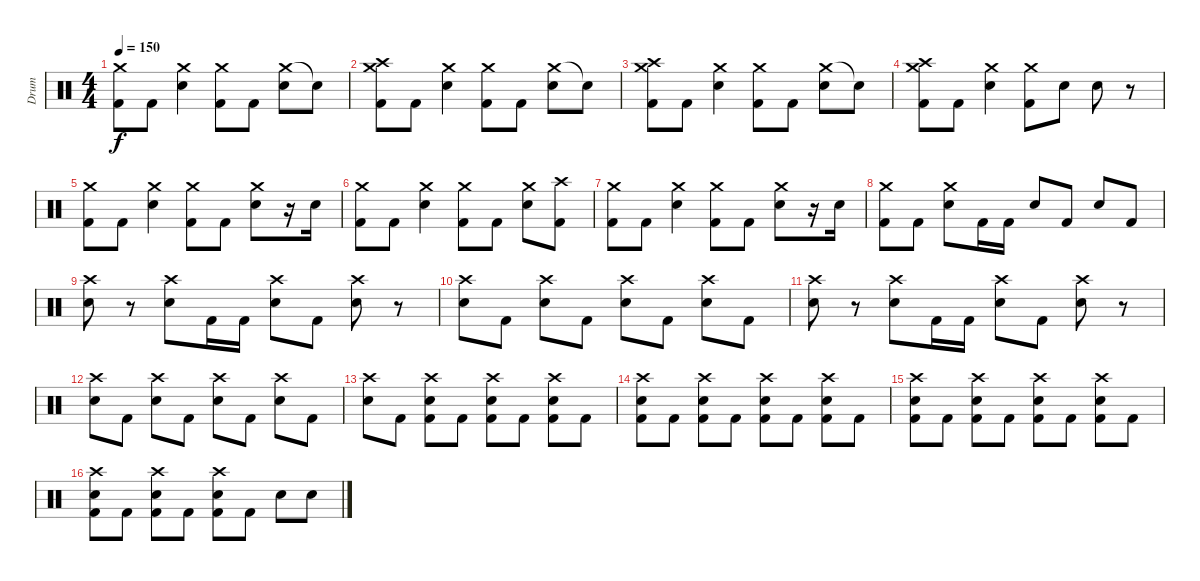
\track ("Drum" "Drum") {instrument percussion}
\staff {score}
\articulation defaults
\ts (4 4)
\tempo 150
\clef neutral
\ks c
("Crash medium (hit)" "Kick (hit) 2").8{dy f} "Kick (hit) 2".8 ("Crash medium (hit)" "Electric Snare (hit)").4 ("Crash medium (hit)" "Kick (hit) 2").8 "Kick (hit) 2".8 ("Crash medium (hit)" "Electric Snare (hit)").8 "Snare (hit)"{t}.8 |
("Crash high (hit)" "Crash medium (hit)" "Kick (hit) 2").8 "Kick (hit) 2".8 ("Crash medium (hit)" "Electric Snare (hit)").4 ("Crash medium (hit)" "Kick (hit) 2").8 "Kick (hit) 2".8 ("Crash medium (hit)" "Electric Snare (hit)").8 "Snare (hit)"{t}.8 |
("Crash high (hit)" "Crash medium (hit)" "Kick (hit) 2").8 "Kick (hit) 2".8 ("Crash medium (hit)" "Electric Snare (hit)").4 ("Crash medium (hit)" "Kick (hit) 2").8 "Kick (hit) 2".8 ("Crash medium (hit)" "Electric Snare (hit)").8 "Snare (hit)"{t}.8 |
("Crash high (hit)" "Crash medium (hit)" "Kick (hit) 2").8 "Kick (hit) 2".8 ("Crash medium (hit)" "Electric Snare (hit)").4 ("Crash medium (hit)" "Kick (hit) 2").8 "Electric Snare (hit)".8 "Electric Snare (hit)".8 r.8 |
("Crash medium (hit)" "Kick (hit) 2").8 "Kick (hit) 2".8 ("Crash medium (hit)" "Electric Snare (hit)").4 ("Crash medium (hit)" "Kick (hit) 2").8 "Kick (hit) 2".8 ("Crash medium (hit)" "Electric Snare (hit)").8 r.16 "Electric Snare (hit)".16 |
("Crash medium (hit)" "Kick (hit) 2").8 "Kick (hit) 2".8 ("Crash medium (hit)" "Electric Snare (hit)").4 ("Crash medium (hit)" "Kick (hit) 2").8 "Kick (hit) 2".8 ("Crash medium (hit)" "Electric Snare (hit)").8 ("Crash high (hit)" "Kick (hit) 2").8 |
("Crash medium (hit)" "Kick (hit) 2").8 "Kick (hit) 2".8 ("Crash medium (hit)" "Electric Snare (hit)").4 ("Crash medium (hit)" "Kick (hit) 2").8 "Kick (hit) 2".8 ("Crash medium (hit)" "Electric Snare (hit)").8 r.16 "Electric Snare (hit)".16 |
("Crash medium (hit)" "Kick (hit) 2").8 "Kick (hit) 2".8 ("Crash medium (hit)" "Electric Snare (hit)").8 "Kick (hit) 2".16 "Kick (hit) 2".16 "Electric Snare (hit)".8 "Kick (hit) 2".8 "Electric Snare (hit)".8 "Kick (hit) 2".8 |
("Crash high (hit)" "Electric Snare (hit)").8 r.8 ("Crash high (hit)" "Electric Snare (hit)").8 "Kick (hit) 2".16 "Kick (hit) 2".16 ("Crash high (hit)" "Electric Snare (hit)").8 "Kick (hit) 2".8 ("Crash high (hit)" "Electric Snare (hit)").8 r.8 |
("Crash high (hit)" "Electric Snare (hit)").8 "Kick (hit) 2".8 ("Crash high (hit)" "Electric Snare (hit)").8 "Kick (hit) 2".8 ("Crash high (hit)" "Electric Snare (hit)").8 "Kick (hit) 2".8 ("Crash high (hit)" "Electric Snare (hit)").8 "Kick (hit) 2".8 |
("Crash high (hit)" "Electric Snare (hit)").8 r.8 ("Crash high (hit)" "Electric Snare (hit)").8 "Kick (hit) 2".16 "Kick (hit) 2".16 ("Crash high (hit)" "Electric Snare (hit)").8 "Kick (hit) 2".8 ("Crash high (hit)" "Electric Snare (hit)").8 r.8 |
("Crash high (hit)" "Electric Snare (hit)").8 "Kick (hit) 2".8 ("Crash high (hit)" "Electric Snare (hit)").8 "Kick (hit) 2".8 ("Crash high (hit)" "Electric Snare (hit)").8 "Kick (hit) 2".8 ("Crash high (hit)" "Electric Snare (hit)").8 "Kick (hit) 2".8 |
("Crash high (hit)" "Electric Snare (hit)").8 "Kick (hit) 2".8 ("Crash high (hit)" "Electric Snare (hit)" "Kick (hit) 2").8 "Kick (hit) 2".8 ("Crash high (hit)" "Electric Snare (hit)" "Kick (hit) 2").8 "Kick (hit) 2".8 ("Crash high (hit)" "Electric Snare (hit)" "Kick (hit) 2").8 "Kick (hit) 2".8 |
("Crash high (hit)" "Electric Snare (hit)" "Kick (hit) 2").8 "Kick (hit) 2".8 ("Crash high (hit)" "Electric Snare (hit)" "Kick (hit) 2").8 "Kick (hit) 2".8 ("Crash high (hit)" "Electric Snare (hit)" "Kick (hit) 2").8 "Kick (hit) 2".8 ("Crash high (hit)" "Electric Snare (hit)" "Kick (hit) 2").8 "Kick (hit) 2".8 |
("Crash high (hit)" "Electric Snare (hit)" "Kick (hit) 2").8 "Kick (hit) 2".8 ("Crash high (hit)" "Electric Snare (hit)" "Kick (hit) 2").8 "Kick (hit) 2".8 ("Crash high (hit)" "Electric Snare (hit)" "Kick (hit) 2").8 "Kick (hit) 2".8 ("Crash high (hit)" "Electric Snare (hit)" "Kick (hit) 2").8 "Kick (hit) 2".8 |
("Crash high (hit)" "Electric Snare (hit)" "Kick (hit) 2").8 "Kick (hit) 2".8 ("Crash high (hit)" "Electric Snare (hit)" "Kick (hit) 2").8 "Kick (hit) 2".8 ("Crash high (hit)" "Electric Snare (hit)" "Kick (hit) 2").8 "Kick (hit) 2".8 "Electric Snare (hit)".8 "Electric Snare (hit)".8
